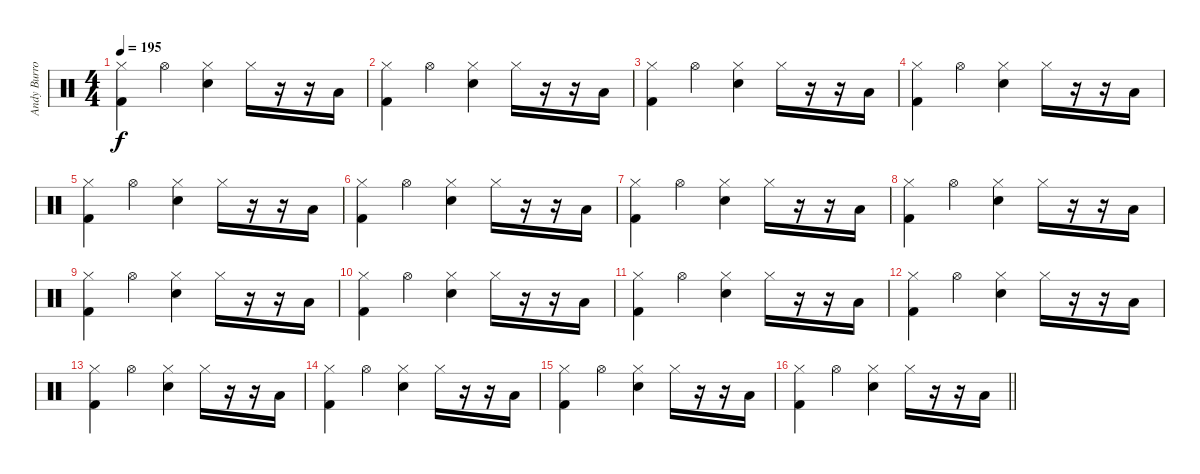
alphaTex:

\track ("Andy Burrows (drums)" "Andy Burro") {instrument percussion}
\staff {score}
\articulation defaults
\ts (4 4)
\tempo 195
\clef neutral
\ks c
("Hi-Hat (closed)" "Kick (hit) 2").4{dy f} "Hi-Hat (open)".4 ("Hi-Hat (closed)" "Electric Snare (hit)").4 "Hi-Hat (closed)".16 r.16 r.16 "Low Floor Tom (hit)".16 |
("Hi-Hat (closed)" "Kick (hit) 2").4 "Hi-Hat (open)".4 ("Hi-Hat (closed)" "Electric Snare (hit)").4 "Hi-Hat (closed)".16 r.16 r.16 "Low Floor Tom (hit)".16 |
("Hi-Hat (closed)" "Kick (hit) 2").4 "Hi-Hat (open)".4 ("Hi-Hat (closed)" "Electric Snare (hit)").4 "Hi-Hat (closed)".16 r.16 r.16 "Low Floor Tom (hit)".16 |
("Hi-Hat (closed)" "Kick (hit) 2").4 "Hi-Hat (open)".4 ("Hi-Hat (closed)" "Electric Snare (hit)").4 "Hi-Hat (closed)".16 r.16 r.16 "Low Floor Tom (hit)".16 |
("Hi-Hat (closed)" "Kick (hit) 2").4 "Hi-Hat (open)".4 ("Hi-Hat (closed)" "Electric Snare (hit)").4 "Hi-Hat (closed)".16 r.16 r.16 "Low Floor Tom (hit)".16 |
("Hi-Hat (closed)" "Kick (hit) 2").4 "Hi-Hat (open)".4 ("Hi-Hat (closed)" "Electric Snare (hit)").4 "Hi-Hat (closed)".16 r.16 r.16 "Low Floor Tom (hit)".16 |
("Hi-Hat (closed)" "Kick (hit) 2").4 "Hi-Hat (open)".4 ("Hi-Hat (closed)" "Electric Snare (hit)").4 "Hi-Hat (closed)".16 r.16 r.16 "Low Floor Tom (hit)".16 |
("Hi-Hat (closed)" "Kick (hit) 2").4 "Hi-Hat (open)".4 ("Hi-Hat (closed)" "Electric Snare (hit)").4 "Hi-Hat (closed)".16 r.16 r.16 "Low Floor Tom (hit)".16 |
("Hi-Hat (closed)" "Kick (hit) 2").4 "Hi-Hat (open)".4 ("Hi-Hat (closed)" "Electric Snare (hit)").4 "Hi-Hat (closed)".16 r.16 r.16 "Low Floor Tom (hit)".16 |
("Hi-Hat (closed)" "Kick (hit) 2").4 "Hi-Hat (open)".4 ("Hi-Hat (closed)" "Electric Snare (hit)").4 "Hi-Hat (closed)".16 r.16 r.16 "Low Floor Tom (hit)".16 |
("Hi-Hat (closed)" "Kick (hit) 2").4 "Hi-Hat (open)".4 ("Hi-Hat (closed)" "Electric Snare (hit)").4 "Hi-Hat (closed)".16 r.16 r.16 "Low Floor Tom (hit)".16 |
("Hi-Hat (closed)" "Kick (hit) 2").4 "Hi-Hat (open)".4 ("Hi-Hat (closed)" "Electric Snare (hit)").4 "Hi-Hat (closed)".16 r.16 r.16 "Low Floor Tom (hit)".16 |
("Hi-Hat (closed)" "Kick (hit) 2").4 "Hi-Hat (open)".4 ("Hi-Hat (closed)" "Electric Snare (hit)").4 "Hi-Hat (closed)".16 r.16 r.16 "Low Floor Tom (hit)".16 |
("Hi-Hat (closed)" "Kick (hit) 2").4 "Hi-Hat (open)".4 ("Hi-Hat (closed)" "Electric Snare (hit)").4 "Hi-Hat (closed)".16 r.16 r.16 "Low Floor Tom (hit)".16 |
("Hi-Hat (closed)" "Kick (hit) 2").4 "Hi-Hat (open)".4 ("Hi-Hat (closed)" "Electric Snare (hit)").4 "Hi-Hat (closed)".16 r.16 r.16 "Low Floor Tom (hit)".16 |
\barLineRight lightlight
("Hi-Hat (closed)" "Kick (hit) 2").4 "Hi-Hat (open)".4 ("Hi-Hat (closed)" "Electric Snare (hit)").4 "Hi-Hat (closed)".16 r.16 r.16 "Low Floor Tom (hit)".16
